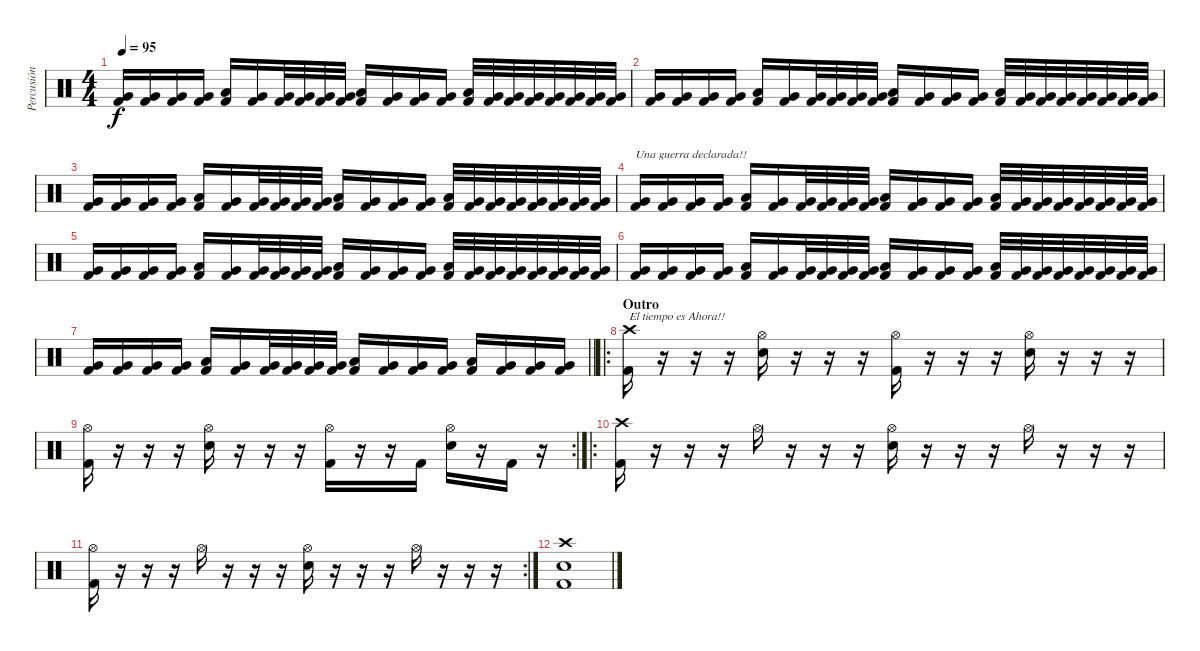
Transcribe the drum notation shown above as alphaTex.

\track ("Percusión" "Percusión") {instrument percussion}
\staff {score}
\articulation defaults
\ts (4 4)
\tempo 95
\clef neutral
\ks c
("Very Low Tom (hit)" "Kick (hit) 2").16{dy f} ("Very Low Tom (hit)" "Kick (hit) 2").16 ("Very Low Tom (hit)" "Kick (hit) 2").16 ("Very Low Tom (hit)" "Kick (hit) 2").16 ("Low Floor Tom (hit)" "Kick (hit) 2").16 ("Very Low Tom (hit)" "Kick (hit) 2").16 ("Very Low Tom (hit)" "Kick (hit) 2").32 ("Very Low Tom (hit)" "Kick (hit) 2").32 ("Very Low Tom (hit)" "Kick (hit) 2").32 ("Very Low Tom (hit)" "Kick (hit) 2").32 ("Low Floor Tom (hit)" "Kick (hit) 2").16 ("Very Low Tom (hit)" "Kick (hit) 2").16 ("Very Low Tom (hit)" "Kick (hit) 2").16 ("Very Low Tom (hit)" "Kick (hit) 2").16 ("Low Floor Tom (hit)" "Kick (hit) 2").32 ("Very Low Tom (hit)" "Kick (hit) 2").32 ("Very Low Tom (hit)" "Kick (hit) 2").32 ("Very Low Tom (hit)" "Kick (hit) 2").32 ("Very Low Tom (hit)" "Kick (hit) 2").32 ("Very Low Tom (hit)" "Kick (hit) 2").32 ("Very Low Tom (hit)" "Kick (hit) 2").32 ("Very Low Tom (hit)" "Kick (hit) 2").32 |
("Very Low Tom (hit)" "Kick (hit) 2").16 ("Very Low Tom (hit)" "Kick (hit) 2").16 ("Very Low Tom (hit)" "Kick (hit) 2").16 ("Very Low Tom (hit)" "Kick (hit) 2").16 ("Low Floor Tom (hit)" "Kick (hit) 2").16 ("Very Low Tom (hit)" "Kick (hit) 2").16 ("Very Low Tom (hit)" "Kick (hit) 2").32 ("Very Low Tom (hit)" "Kick (hit) 2").32 ("Very Low Tom (hit)" "Kick (hit) 2").32 ("Very Low Tom (hit)" "Kick (hit) 2").32 ("Low Floor Tom (hit)" "Kick (hit) 2").16 ("Very Low Tom (hit)" "Kick (hit) 2").16 ("Very Low Tom (hit)" "Kick (hit) 2").16 ("Very Low Tom (hit)" "Kick (hit) 2").16 ("Low Floor Tom (hit)" "Kick (hit) 2").32 ("Very Low Tom (hit)" "Kick (hit) 2").32 ("Very Low Tom (hit)" "Kick (hit) 2").32 ("Very Low Tom (hit)" "Kick (hit) 2").32 ("Very Low Tom (hit)" "Kick (hit) 2").32 ("Very Low Tom (hit)" "Kick (hit) 2").32 ("Very Low Tom (hit)" "Kick (hit) 2").32 ("Very Low Tom (hit)" "Kick (hit) 2").32 |
("Very Low Tom (hit)" "Kick (hit) 2").16 ("Very Low Tom (hit)" "Kick (hit) 2").16 ("Very Low Tom (hit)" "Kick (hit) 2").16 ("Very Low Tom (hit)" "Kick (hit) 2").16 ("Low Floor Tom (hit)" "Kick (hit) 2").16 ("Very Low Tom (hit)" "Kick (hit) 2").16 ("Very Low Tom (hit)" "Kick (hit) 2").32 ("Very Low Tom (hit)" "Kick (hit) 2").32 ("Very Low Tom (hit)" "Kick (hit) 2").32 ("Very Low Tom (hit)" "Kick (hit) 2").32 ("Low Floor Tom (hit)" "Kick (hit) 2").16 ("Very Low Tom (hit)" "Kick (hit) 2").16 ("Very Low Tom (hit)" "Kick (hit) 2").16 ("Very Low Tom (hit)" "Kick (hit) 2").16 ("Low Floor Tom (hit)" "Kick (hit) 2").32 ("Very Low Tom (hit)" "Kick (hit) 2").32 ("Very Low Tom (hit)" "Kick (hit) 2").32 ("Very Low Tom (hit)" "Kick (hit) 2").32 ("Very Low Tom (hit)" "Kick (hit) 2").32 ("Very Low Tom (hit)" "Kick (hit) 2").32 ("Very Low Tom (hit)" "Kick (hit) 2").32 ("Very Low Tom (hit)" "Kick (hit) 2").32 |
("Very Low Tom (hit)" "Kick (hit) 2").16{txt "Una guerra declarada!!"} ("Very Low Tom (hit)" "Kick (hit) 2").16 ("Very Low Tom (hit)" "Kick (hit) 2").16 ("Very Low Tom (hit)" "Kick (hit) 2").16 ("Low Floor Tom (hit)" "Kick (hit) 2").16 ("Very Low Tom (hit)" "Kick (hit) 2").16 ("Very Low Tom (hit)" "Kick (hit) 2").32 ("Very Low Tom (hit)" "Kick (hit) 2").32 ("Very Low Tom (hit)" "Kick (hit) 2").32 ("Very Low Tom (hit)" "Kick (hit) 2").32 ("Low Floor Tom (hit)" "Kick (hit) 2").16 ("Very Low Tom (hit)" "Kick (hit) 2").16 ("Very Low Tom (hit)" "Kick (hit) 2").16 ("Very Low Tom (hit)" "Kick (hit) 2").16 ("Low Floor Tom (hit)" "Kick (hit) 2").32 ("Very Low Tom (hit)" "Kick (hit) 2").32 ("Very Low Tom (hit)" "Kick (hit) 2").32 ("Very Low Tom (hit)" "Kick (hit) 2").32 ("Very Low Tom (hit)" "Kick (hit) 2").32 ("Very Low Tom (hit)" "Kick (hit) 2").32 ("Very Low Tom (hit)" "Kick (hit) 2").32 ("Very Low Tom (hit)" "Kick (hit) 2").32 |
("Very Low Tom (hit)" "Kick (hit) 2").16 ("Very Low Tom (hit)" "Kick (hit) 2").16 ("Very Low Tom (hit)" "Kick (hit) 2").16 ("Very Low Tom (hit)" "Kick (hit) 2").16 ("Low Floor Tom (hit)" "Kick (hit) 2").16 ("Very Low Tom (hit)" "Kick (hit) 2").16 ("Very Low Tom (hit)" "Kick (hit) 2").32 ("Very Low Tom (hit)" "Kick (hit) 2").32 ("Very Low Tom (hit)" "Kick (hit) 2").32 ("Very Low Tom (hit)" "Kick (hit) 2").32 ("Low Floor Tom (hit)" "Kick (hit) 2").16 ("Very Low Tom (hit)" "Kick (hit) 2").16 ("Very Low Tom (hit)" "Kick (hit) 2").16 ("Very Low Tom (hit)" "Kick (hit) 2").16 ("Low Floor Tom (hit)" "Kick (hit) 2").32 ("Very Low Tom (hit)" "Kick (hit) 2").32 ("Very Low Tom (hit)" "Kick (hit) 2").32 ("Very Low Tom (hit)" "Kick (hit) 2").32 ("Very Low Tom (hit)" "Kick (hit) 2").32 ("Very Low Tom (hit)" "Kick (hit) 2").32 ("Very Low Tom (hit)" "Kick (hit) 2").32 ("Very Low Tom (hit)" "Kick (hit) 2").32 |
("Very Low Tom (hit)" "Kick (hit) 2").16 ("Very Low Tom (hit)" "Kick (hit) 2").16 ("Very Low Tom (hit)" "Kick (hit) 2").16 ("Very Low Tom (hit)" "Kick (hit) 2").16 ("Low Floor Tom (hit)" "Kick (hit) 2").16 ("Very Low Tom (hit)" "Kick (hit) 2").16 ("Very Low Tom (hit)" "Kick (hit) 2").32 ("Very Low Tom (hit)" "Kick (hit) 2").32 ("Very Low Tom (hit)" "Kick (hit) 2").32 ("Very Low Tom (hit)" "Kick (hit) 2").32 ("Low Floor Tom (hit)" "Kick (hit) 2").16 ("Very Low Tom (hit)" "Kick (hit) 2").16 ("Very Low Tom (hit)" "Kick (hit) 2").16 ("Very Low Tom (hit)" "Kick (hit) 2").16 ("Low Floor Tom (hit)" "Kick (hit) 2").32 ("Very Low Tom (hit)" "Kick (hit) 2").32 ("Very Low Tom (hit)" "Kick (hit) 2").32 ("Very Low Tom (hit)" "Kick (hit) 2").32 ("Very Low Tom (hit)" "Kick (hit) 2").32 ("Very Low Tom (hit)" "Kick (hit) 2").32 ("Very Low Tom (hit)" "Kick (hit) 2").32 ("Very Low Tom (hit)" "Kick (hit) 2").32 |
\barLineRight lightlight
("Very Low Tom (hit)" "Kick (hit) 2").16 ("Very Low Tom (hit)" "Kick (hit) 2").16 ("Very Low Tom (hit)" "Kick (hit) 2").16 ("Very Low Tom (hit)" "Kick (hit) 2").16 ("Low Floor Tom (hit)" "Kick (hit) 2").16 ("Very Low Tom (hit)" "Kick (hit) 2").16 ("Very Low Tom (hit)" "Kick (hit) 2").32 ("Very Low Tom (hit)" "Kick (hit) 2").32 ("Very Low Tom (hit)" "Kick (hit) 2").32 ("Very Low Tom (hit)" "Kick (hit) 2").32 ("Low Floor Tom (hit)" "Kick (hit) 2").16 ("Very Low Tom (hit)" "Kick (hit) 2").16 ("Very Low Tom (hit)" "Kick (hit) 2").16 ("Very Low Tom (hit)" "Kick (hit) 2").16 ("Low Floor Tom (hit)" "Kick (hit) 2").16 ("Very Low Tom (hit)" "Kick (hit) 2").16 ("Very Low Tom (hit)" "Kick (hit) 2").16 ("Very Low Tom (hit)" "Kick (hit) 2").16 |
\ro
\section ("" "Outro")
("Crash high (hit)" "Kick (hit) 2").16{txt "El tiempo es Ahora!!"} r.16 r.16 r.16 ("Hi-Hat (open)" "Electric Snare (hit)").16 r.16 r.16 r.16 ("Hi-Hat (open)" "Kick (hit) 2").16 r.16 r.16 r.16 ("Hi-Hat (open)" "Electric Snare (hit)").16 r.16 r.16 r.16 |
\rc 2
("Hi-Hat (open)" "Kick (hit) 2").16 r.16 r.16 r.16 ("Hi-Hat (open)" "Electric Snare (hit)").16 r.16 r.16 r.16 ("Hi-Hat (open)" "Kick (hit) 2").16 r.16 r.16 "Kick (hit) 2".16 ("Hi-Hat (open)" "Electric Snare (hit)").16 r.16 "Kick (hit) 2".16 r.16 |
\ro
("Crash high (hit)" "Kick (hit) 2").16 r.16 r.16 r.16 "Hi-Hat (open)".16 r.16 r.16 r.16 ("Hi-Hat (open)" "Electric Snare (hit)").16 r.16 r.16 r.16 "Hi-Hat (open)".16 r.16 r.16 r.16 |
\rc 2
("Hi-Hat (open)" "Kick (hit) 2").16 r.16 r.16 r.16 "Hi-Hat (open)".16 r.16 r.16 r.16 ("Hi-Hat (open)" "Electric Snare (hit)").16 r.16 r.16 r.16 "Hi-Hat (open)".16 r.16 r.16 r.16 |
("Crash high (hit)" "Electric Snare (hit)" "Kick (hit) 2").1
